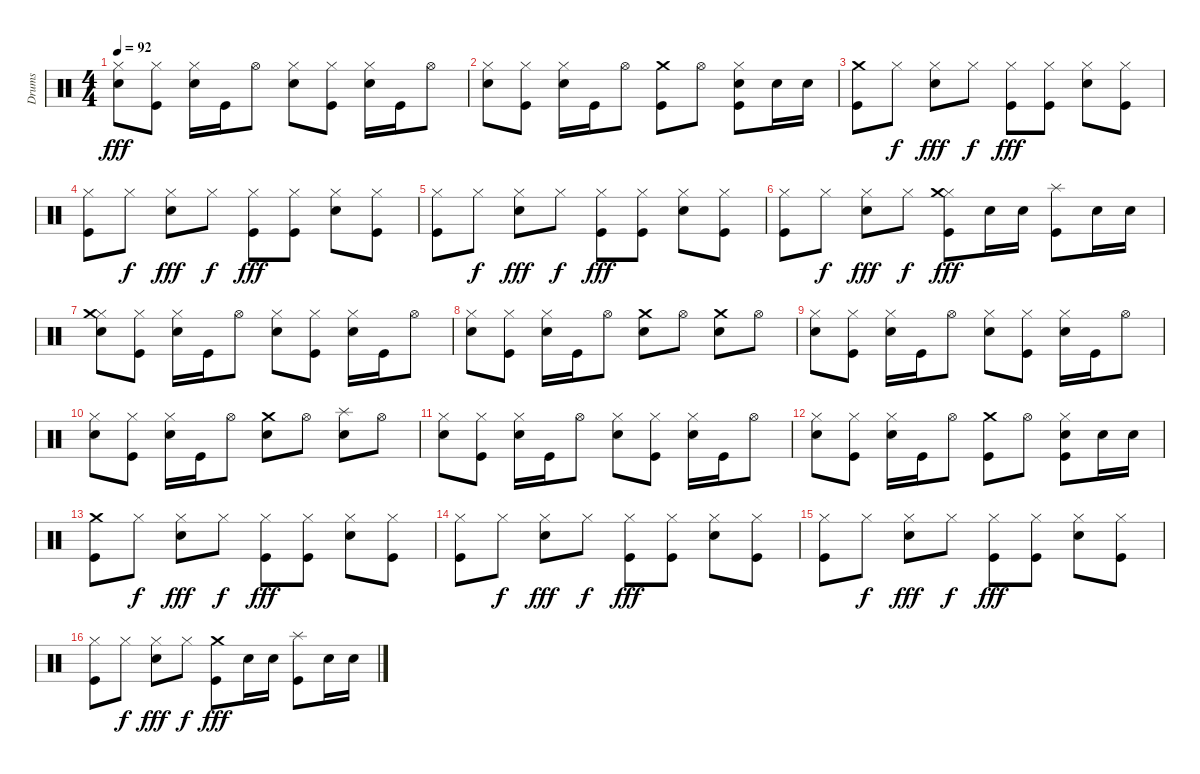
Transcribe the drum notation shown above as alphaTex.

\track ("Drums" "Drums") {instrument percussion}
\staff {score}
\articulation defaults
\ts (4 4)
\tempo 92
\clef neutral
\ks c
("Hi-Hat (closed)" "Snare (hit) 2").8{dy fff} ("Hi-Hat (closed)" "Kick (hit)").8 ("Hi-Hat (closed)" "Snare (hit) 2").16 "Kick (hit)".16 "Hi-Hat (open)".8 ("Hi-Hat (closed)" "Snare (hit) 2").8 ("Hi-Hat (closed)" "Kick (hit)").8 ("Hi-Hat (closed)" "Snare (hit) 2").16 "Kick (hit)".16 "Hi-Hat (open)".8 |
("Hi-Hat (closed)" "Snare (hit) 2").8 ("Hi-Hat (closed)" "Kick (hit)").8 ("Hi-Hat (closed)" "Snare (hit) 2").16 "Kick (hit)".16 "Hi-Hat (open)".8 ("Crash medium (hit)" "Kick (hit)").8 "Hi-Hat (open)".8 ("Hi-Hat (closed)" "Snare (hit) 2" "Kick (hit)").8 "Snare (hit) 2".16 "Snare (hit) 2".16 |
("Crash medium (hit)" "Kick (hit)").8 "Hi-Hat (closed)".8{dy f} ("Hi-Hat (closed)" "Snare (hit) 2").8{dy fff} "Hi-Hat (closed)".8{dy f} ("Hi-Hat (closed)" "Kick (hit)").8{dy fff} ("Hi-Hat (closed)" "Kick (hit)").8 ("Hi-Hat (closed)" "Snare (hit) 2").8 ("Hi-Hat (closed)" "Kick (hit)").8 |
("Hi-Hat (closed)" "Kick (hit)").8 "Hi-Hat (closed)".8{dy f} ("Hi-Hat (closed)" "Snare (hit) 2").8{dy fff} "Hi-Hat (closed)".8{dy f} ("Hi-Hat (closed)" "Kick (hit)").8{dy fff} ("Hi-Hat (closed)" "Kick (hit)").8 ("Hi-Hat (closed)" "Snare (hit) 2").8 ("Hi-Hat (closed)" "Kick (hit)").8 |
("Hi-Hat (closed)" "Kick (hit)").8 "Hi-Hat (closed)".8{dy f} ("Hi-Hat (closed)" "Snare (hit) 2").8{dy fff} "Hi-Hat (closed)".8{dy f} ("Hi-Hat (closed)" "Kick (hit)").8{dy fff} ("Hi-Hat (closed)" "Kick (hit)").8 ("Hi-Hat (closed)" "Snare (hit) 2").8 ("Hi-Hat (closed)" "Kick (hit)").8 |
("Hi-Hat (closed)" "Kick (hit)").8 "Hi-Hat (closed)".8{dy f} ("Hi-Hat (closed)" "Snare (hit) 2").8{dy fff} "Hi-Hat (closed)".8{dy f} ("Hi-Hat (closed)" "Crash medium (hit)" "Kick (hit)").8{dy fff} "Snare (hit) 2".16 "Snare (hit) 2".16 ("Splash (hit)" "Kick (hit)").8 "Snare (hit) 2".16 "Snare (hit) 2".16 |
("Hi-Hat (closed)" "Snare (hit) 2" "Crash medium (hit)").8 ("Hi-Hat (closed)" "Kick (hit)").8 ("Hi-Hat (closed)" "Snare (hit) 2").16 "Kick (hit)".16 "Hi-Hat (open)".8 ("Hi-Hat (closed)" "Snare (hit) 2").8 ("Hi-Hat (closed)" "Kick (hit)").8 ("Hi-Hat (closed)" "Snare (hit) 2").16 "Kick (hit)".16 "Hi-Hat (open)".8 |
("Hi-Hat (closed)" "Snare (hit) 2").8 ("Hi-Hat (closed)" "Kick (hit)").8 ("Hi-Hat (closed)" "Snare (hit) 2").16 "Kick (hit)".16 "Hi-Hat (open)".8 ("Snare (hit) 2" "Crash medium (hit)").8 "Hi-Hat (open)".8 ("Snare (hit) 2" "Crash medium (hit)").8 "Hi-Hat (open)".8 |
("Hi-Hat (closed)" "Snare (hit) 2").8 ("Hi-Hat (closed)" "Kick (hit)").8 ("Hi-Hat (closed)" "Snare (hit) 2").16 "Kick (hit)".16 "Hi-Hat (open)".8 ("Hi-Hat (closed)" "Snare (hit) 2").8 ("Hi-Hat (closed)" "Kick (hit)").8 ("Hi-Hat (closed)" "Snare (hit) 2").16 "Kick (hit)".16 "Hi-Hat (open)".8 |
("Hi-Hat (closed)" "Snare (hit) 2").8 ("Hi-Hat (closed)" "Kick (hit)").8 ("Hi-Hat (closed)" "Snare (hit) 2").16 "Kick (hit)".16 "Hi-Hat (open)".8 ("Snare (hit) 2" "Crash medium (hit)").8 "Hi-Hat (open)".8 ("Splash (hit)" "Snare (hit) 2").8 "Hi-Hat (open)".8 |
("Hi-Hat (closed)" "Snare (hit) 2").8 ("Hi-Hat (closed)" "Kick (hit)").8 ("Hi-Hat (closed)" "Snare (hit) 2").16 "Kick (hit)".16 "Hi-Hat (open)".8 ("Hi-Hat (closed)" "Snare (hit) 2").8 ("Hi-Hat (closed)" "Kick (hit)").8 ("Hi-Hat (closed)" "Snare (hit) 2").16 "Kick (hit)".16 "Hi-Hat (open)".8 |
("Hi-Hat (closed)" "Snare (hit) 2").8 ("Hi-Hat (closed)" "Kick (hit)").8 ("Hi-Hat (closed)" "Snare (hit) 2").16 "Kick (hit)".16 "Hi-Hat (open)".8 ("Crash medium (hit)" "Kick (hit)").8 "Hi-Hat (open)".8 ("Hi-Hat (closed)" "Snare (hit) 2" "Kick (hit)").8 "Snare (hit) 2".16 "Snare (hit) 2".16 |
("Crash medium (hit)" "Kick (hit)").8 "Hi-Hat (closed)".8{dy f} ("Hi-Hat (closed)" "Snare (hit) 2").8{dy fff} "Hi-Hat (closed)".8{dy f} ("Hi-Hat (closed)" "Kick (hit)").8{dy fff} ("Hi-Hat (closed)" "Kick (hit)").8 ("Hi-Hat (closed)" "Snare (hit) 2").8 ("Hi-Hat (closed)" "Kick (hit)").8 |
("Hi-Hat (closed)" "Kick (hit)").8 "Hi-Hat (closed)".8{dy f} ("Hi-Hat (closed)" "Snare (hit) 2").8{dy fff} "Hi-Hat (closed)".8{dy f} ("Hi-Hat (closed)" "Kick (hit)").8{dy fff} ("Hi-Hat (closed)" "Kick (hit)").8 ("Hi-Hat (closed)" "Snare (hit) 2").8 ("Hi-Hat (closed)" "Kick (hit)").8 |
("Hi-Hat (closed)" "Kick (hit)").8 "Hi-Hat (closed)".8{dy f} ("Hi-Hat (closed)" "Snare (hit) 2").8{dy fff} "Hi-Hat (closed)".8{dy f} ("Hi-Hat (closed)" "Kick (hit)").8{dy fff} ("Hi-Hat (closed)" "Kick (hit)").8 ("Hi-Hat (closed)" "Snare (hit) 2").8 ("Hi-Hat (closed)" "Kick (hit)").8 |
("Hi-Hat (closed)" "Kick (hit)").8 "Hi-Hat (closed)".8{dy f} ("Hi-Hat (closed)" "Snare (hit) 2").8{dy fff} "Hi-Hat (closed)".8{dy f} ("Crash medium (hit)" "Kick (hit)").8{dy fff} "Snare (hit) 2".16 "Snare (hit) 2".16 ("Splash (hit)" "Kick (hit)").8 "Snare (hit) 2".16 "Snare (hit) 2".16
